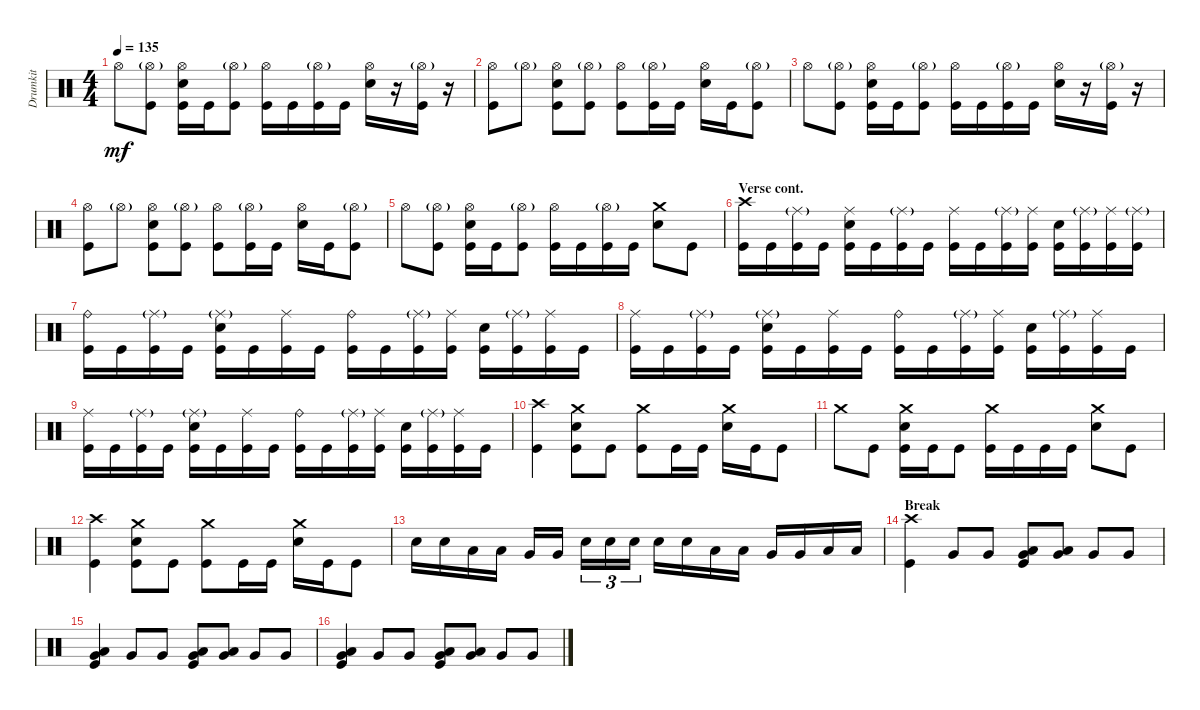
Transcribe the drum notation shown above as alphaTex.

\track ("Drumkit" "Drumkit") {instrument percussion}
\staff {score}
\articulation defaults
\ts (4 4)
\tempo 135
\clef neutral
\ks c "Hi-Hat (open)".8{dy mf}
("Hi-Hat (open)"{g} "Kick (hit)").8 ("Hi-Hat (open)" "Kick (hit)" "Snare (hit) 2").16 "Kick (hit)".16 ("Hi-Hat (open)"{g} "Kick (hit)").8 ("Hi-Hat (open)" "Kick (hit)").16 "Kick (hit)".16 ("Hi-Hat (open)"{g} "Kick (hit)").16 "Kick (hit)".16 ("Hi-Hat (open)" "Snare (hit) 2").16 r.16 ("Hi-Hat (open)"{g} "Kick (hit)").16 r.16 |
("Kick (hit)" "Hi-Hat (open)").8 "Hi-Hat (open)"{g}.8 ("Hi-Hat (open)" "Kick (hit)" "Snare (hit) 2").8 ("Hi-Hat (open)"{g} "Kick (hit)").8 ("Hi-Hat (open)" "Kick (hit)").8 ("Hi-Hat (open)"{g} "Kick (hit)").16 "Kick (hit)".16 ("Hi-Hat (open)" "Snare (hit) 2").16 "Kick (hit)".16 ("Hi-Hat (open)"{g} "Kick (hit)").8 |
"Hi-Hat (open)".8 ("Hi-Hat (open)"{g} "Kick (hit)").8 ("Hi-Hat (open)" "Kick (hit)" "Snare (hit) 2").16 "Kick (hit)".16 ("Hi-Hat (open)"{g} "Kick (hit)").8 ("Hi-Hat (open)" "Kick (hit)").16 "Kick (hit)".16 ("Hi-Hat (open)"{g} "Kick (hit)").16 "Kick (hit)".16 ("Hi-Hat (open)" "Snare (hit) 2").16 r.16 ("Hi-Hat (open)"{g} "Kick (hit)").16 r.16 |
("Kick (hit)" "Hi-Hat (open)").8 "Hi-Hat (open)"{g}.8 ("Hi-Hat (open)" "Kick (hit)" "Snare (hit) 2").8 ("Hi-Hat (open)"{g} "Kick (hit)").8 ("Hi-Hat (open)" "Kick (hit)").8 ("Hi-Hat (open)"{g} "Kick (hit)").16 "Kick (hit)".16 ("Hi-Hat (open)" "Snare (hit) 2").16 "Kick (hit)".16 ("Hi-Hat (open)"{g} "Kick (hit)").8 |
"Hi-Hat (open)".8 ("Hi-Hat (open)"{g} "Kick (hit)").8 ("Hi-Hat (open)" "Kick (hit)" "Snare (hit) 2").16 "Kick (hit)".16 ("Hi-Hat (open)"{g} "Kick (hit)").8 ("Hi-Hat (open)" "Kick (hit)").16 "Kick (hit)".16 ("Hi-Hat (open)"{g} "Kick (hit)").16 "Kick (hit)".16 ("Snare (hit) 2" "Crash medium (hit)").8 "Kick (hit)".8 |
\section ("" "Verse cont.")
("Kick (hit)" "Crash high (hit)").16 "Kick (hit)".16 ("Kick (hit)" "Ride (middle)"{g}).16 "Kick (hit)".16 ("Kick (hit)" "Snare (hit) 2" "Ride (middle)").16 "Kick (hit)".16 ("Kick (hit)" "Ride (middle)"{g}).16 "Kick (hit)".16 ("Kick (hit)" "Ride (middle)").16 "Kick (hit)".16 ("Kick (hit)" "Ride (middle)"{g}).16 ("Kick (hit)" "Ride (middle)").16 ("Kick (hit)" "Snare (hit) 2").16 ("Kick (hit)" "Ride (middle)"{g}).16 ("Kick (hit)" "Ride (middle)").16 ("Kick (hit)" "Ride (middle)"{g}).16 |
("Kick (hit)" "Ride (bell)").16 "Kick (hit)".16 ("Kick (hit)" "Ride (middle)"{g}).16 "Kick (hit)".16 ("Kick (hit)" "Snare (hit) 2" "Ride (middle)"{g}).16 "Kick (hit)".16 ("Kick (hit)" "Ride (middle)").16 "Kick (hit)".16 ("Kick (hit)" "Ride (bell)").16 "Kick (hit)".16 ("Kick (hit)" "Ride (middle)"{g}).16 ("Kick (hit)" "Ride (middle)").16 ("Kick (hit)" "Snare (hit) 2").16 ("Kick (hit)" "Ride (middle)"{g}).16 ("Kick (hit)" "Ride (middle)").16 "Kick (hit)".16 |
("Kick (hit)" "Ride (middle)").16 "Kick (hit)".16 ("Kick (hit)" "Ride (middle)"{g}).16 "Kick (hit)".16 ("Kick (hit)" "Snare (hit) 2" "Ride (middle)"{g}).16 "Kick (hit)".16 ("Kick (hit)" "Ride (middle)").16 "Kick (hit)".16 ("Kick (hit)" "Ride (bell)").16 "Kick (hit)".16 ("Kick (hit)" "Ride (middle)"{g}).16 ("Kick (hit)" "Ride (middle)").16 ("Kick (hit)" "Snare (hit) 2").16 ("Kick (hit)" "Ride (middle)"{g}).16 ("Kick (hit)" "Ride (middle)").16 "Kick (hit)".16 |
("Kick (hit)" "Ride (middle)").16 "Kick (hit)".16 ("Kick (hit)" "Ride (middle)"{g}).16 "Kick (hit)".16 ("Kick (hit)" "Snare (hit) 2" "Ride (middle)"{g}).16 "Kick (hit)".16 ("Kick (hit)" "Ride (middle)").16 "Kick (hit)".16 ("Kick (hit)" "Ride (bell)").16 "Kick (hit)".16 ("Kick (hit)" "Ride (middle)"{g}).16 ("Kick (hit)" "Ride (middle)").16 ("Kick (hit)" "Snare (hit) 2").16 ("Kick (hit)" "Ride (middle)"{g}).16 ("Kick (hit)" "Ride (middle)").16 "Kick (hit)".16 |
("Crash high (hit)" "Kick (hit)").4 ("Kick (hit)" "Snare (hit) 2" "Crash medium (hit)").8 "Kick (hit)".8 ("Kick (hit)" "Crash medium (hit)").8 "Kick (hit)".16 "Kick (hit)".16 ("Snare (hit) 2" "Crash medium (hit)").16 "Kick (hit)".16 "Kick (hit)".8 |
"Crash medium (hit)".8 "Kick (hit)".8 ("Kick (hit)" "Snare (hit) 2" "Crash medium (hit)").16 "Kick (hit)".16 "Kick (hit)".8 ("Kick (hit)" "Crash medium (hit)").16 "Kick (hit)".16 "Kick (hit)".16 "Kick (hit)".16 ("Snare (hit) 2" "Crash medium (hit)").8 "Kick (hit)".8 |
("Crash high (hit)" "Kick (hit)").4 ("Kick (hit)" "Snare (hit) 2" "Crash medium (hit)").8 "Kick (hit)".8 ("Kick (hit)" "Crash medium (hit)").8 "Kick (hit)".16 "Kick (hit)".16 ("Snare (hit) 2" "Crash medium (hit)").16 "Kick (hit)".16 "Kick (hit)".8 |
"Snare (hit) 2".16 "Snare (hit) 2".16 "Low Tom (hit)".16 "Low Tom (hit)".16 "Very Low Tom (hit)".16 "Very Low Tom (hit)".16 "Snare (hit) 2".16{tu (3 2)} "Snare (hit) 2".16{tu (3 2)} "Snare (hit) 2".16{tu (3 2)} "Snare (hit) 2".16 "Snare (hit) 2".16 "Low Tom (hit)".16 "Low Tom (hit)".16 "Very Low Tom (hit)".16 "Very Low Tom (hit)".16 "Low Floor Tom (hit)".16 "Low Floor Tom (hit)".16 |
\section ("" "Break")
("Kick (hit)" "Crash high (hit)").4 "Very Low Tom (hit)".8 "Very Low Tom (hit)".8 ("Low Floor Tom (hit)" "Kick (hit)" "Very Low Tom (hit)").8 ("Low Floor Tom (hit)" "Very Low Tom (hit)").8 "Very Low Tom (hit)".8 "Very Low Tom (hit)".8 |
("Kick (hit)" "Very Low Tom (hit)" "Low Floor Tom (hit)").4 "Very Low Tom (hit)".8 "Very Low Tom (hit)".8 ("Low Floor Tom (hit)" "Kick (hit)" "Very Low Tom (hit)").8 ("Low Floor Tom (hit)" "Very Low Tom (hit)").8 "Very Low Tom (hit)".8 "Very Low Tom (hit)".8 |
("Kick (hit)" "Very Low Tom (hit)" "Low Floor Tom (hit)").4 "Very Low Tom (hit)".8 "Very Low Tom (hit)".8 ("Low Floor Tom (hit)" "Kick (hit)" "Very Low Tom (hit)").8 ("Low Floor Tom (hit)" "Very Low Tom (hit)").8 "Very Low Tom (hit)".8 "Very Low Tom (hit)".8
